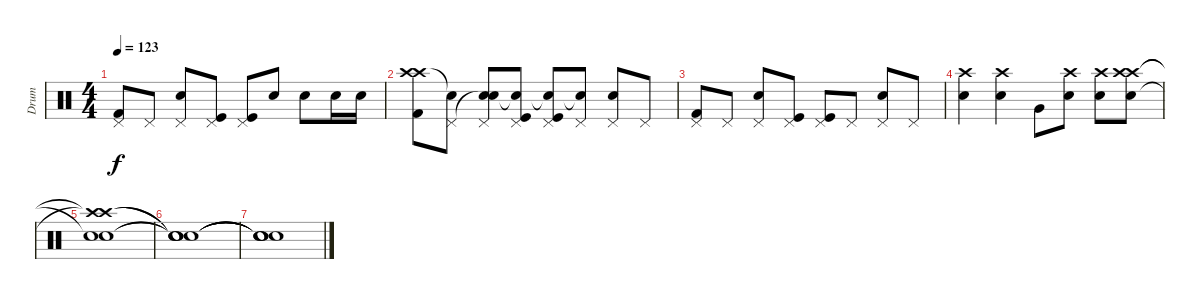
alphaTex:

\track ("Drum" "Drum") {instrument percussion}
\staff {score}
\articulation defaults
\ts (4 4)
\tempo 123
\clef neutral
\ks c
("Kick (hit) 2" "Pedal Hi-Hat (hit)").8{dy f} "Pedal Hi-Hat (hit)".8 ("Snare (hit) 2" "Pedal Hi-Hat (hit)").8 ("Kick (hit)" "Pedal Hi-Hat (hit)").8 ("Kick (hit)" "Pedal Hi-Hat (hit)").8 "Electric Snare (hit)".8 "Electric Snare (hit)".8 "Electric Snare (hit)".16 "Electric Snare (hit)".16 |
("Crash high (hit)" "Crash high (hit)" "Kick (hit) 2").8 ("Snare (hit)"{t} "Pedal Hi-Hat (hit)").8 ("Snare (hit) 2" "Snare (hit)"{t} "Pedal Hi-Hat (hit)").8 ("Snare (hit)"{t} "Kick (hit)" "Pedal Hi-Hat (hit)").8 ("Snare (hit)"{t} "Kick (hit)" "Pedal Hi-Hat (hit)").8 ("Snare (hit)"{t} "Pedal Hi-Hat (hit)").8 ("Snare (hit) 2" "Pedal Hi-Hat (hit)").8 "Pedal Hi-Hat (hit)".8 |
("Kick (hit) 2" "Pedal Hi-Hat (hit)").8 "Pedal Hi-Hat (hit)".8 ("Snare (hit) 2" "Pedal Hi-Hat (hit)").8 ("Kick (hit)" "Pedal Hi-Hat (hit)").8 ("Kick (hit)" "Pedal Hi-Hat (hit)").8 "Pedal Hi-Hat (hit)".8 ("Snare (hit) 2" "Pedal Hi-Hat (hit)").8 "Pedal Hi-Hat (hit)".8 |
("Crash high (hit)" "Snare (hit) 2").4 ("Crash high (hit)" "Snare (hit) 2").4 "Very Low Tom (hit)".8 ("Crash high (hit)" "Electric Snare (hit)").8 ("Crash high (hit)" "Electric Snare (hit)").8 ("Crash high (hit)" "Crash high (hit)" "Snare (hit) 2").8 |
("Snare (hit)"{t} "Crash high (hit)"{t} "Crash high (hit)"{t} "Snare (hit)").1 |
("Snare (hit)"{t} "Snare (hit)"{t} "Snare (hit)"{t} "Snare (hit)"{t}).1 |
("Snare (hit)"{t} "Snare (hit)"{t} "Snare (hit)"{t} "Snare (hit)"{t}).1
